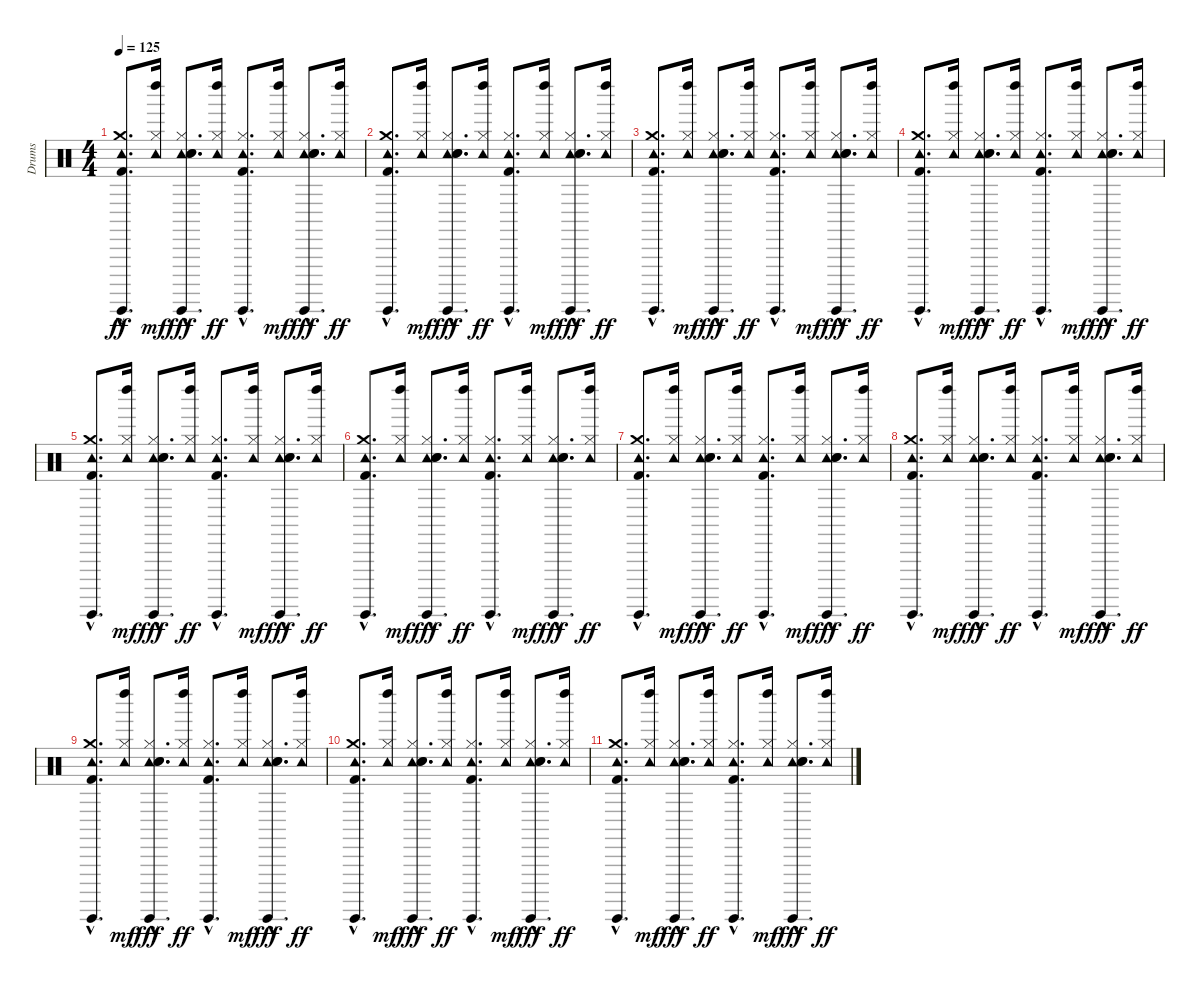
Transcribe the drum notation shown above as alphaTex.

\track ("Drums" "Drums") {instrument percussion}
\staff {score}
\articulation defaults
\ts (4 4)
\tempo 125
\clef neutral
\ks c
("Guiro (hit)"{hac} "Tambourine (hit)"{hac} "Crash medium (hit)"{hac} "Kick (hit) 2"{hac}).8{d dy ff} ("Left Maraca (hit)" "Tambourine (hit)" "Hi-Hat (closed)").16{dy mf} ("Guiro (hit)"{hac} "Tambourine (hit)"{hac} "Hi-Hat (closed)"{hac} "Hand Clap (hit)"{hac} "Snare (hit) 2"{hac}).8{d dy fff} ("Left Maraca (hit)" "Tambourine (hit)" "Hi-Hat (closed)").16{dy ff} ("Guiro (hit)"{hac} "Tambourine (hit)"{hac} "Hi-Hat (closed)"{hac} "Kick (hit) 2"{hac}).8{d} ("Left Maraca (hit)" "Tambourine (hit)" "Hi-Hat (closed)").16{dy mf} ("Guiro (hit)"{hac} "Tambourine (hit)"{hac} "Hi-Hat (closed)"{hac} "Hand Clap (hit)"{hac} "Snare (hit) 2"{hac}).8{d dy fff} ("Left Maraca (hit)" "Tambourine (hit)" "Hi-Hat (closed)").16{dy ff} |
("Guiro (hit)"{hac} "Tambourine (hit)"{hac} "Crash medium (hit)"{hac} "Kick (hit) 2"{hac}).8{d} ("Left Maraca (hit)" "Tambourine (hit)" "Hi-Hat (closed)").16{dy mf} ("Guiro (hit)"{hac} "Tambourine (hit)"{hac} "Hi-Hat (closed)"{hac} "Hand Clap (hit)"{hac} "Snare (hit) 2"{hac}).8{d dy fff} ("Left Maraca (hit)" "Tambourine (hit)" "Hi-Hat (closed)").16{dy ff} ("Guiro (hit)"{hac} "Tambourine (hit)"{hac} "Hi-Hat (closed)"{hac} "Kick (hit) 2"{hac}).8{d} ("Left Maraca (hit)" "Tambourine (hit)" "Hi-Hat (closed)").16{dy mf} ("Guiro (hit)"{hac} "Tambourine (hit)"{hac} "Hi-Hat (closed)"{hac} "Hand Clap (hit)"{hac} "Snare (hit) 2"{hac}).8{d dy fff} ("Left Maraca (hit)" "Tambourine (hit)" "Hi-Hat (closed)").16{dy ff} |
("Guiro (hit)"{hac} "Tambourine (hit)"{hac} "Crash medium (hit)"{hac} "Kick (hit) 2"{hac}).8{d} ("Left Maraca (hit)" "Tambourine (hit)" "Hi-Hat (closed)").16{dy mf} ("Guiro (hit)"{hac} "Tambourine (hit)"{hac} "Hi-Hat (closed)"{hac} "Hand Clap (hit)"{hac} "Snare (hit) 2"{hac}).8{d dy fff} ("Left Maraca (hit)" "Tambourine (hit)" "Hi-Hat (closed)").16{dy ff} ("Guiro (hit)"{hac} "Tambourine (hit)"{hac} "Hi-Hat (closed)"{hac} "Kick (hit) 2"{hac}).8{d} ("Left Maraca (hit)" "Tambourine (hit)" "Hi-Hat (closed)").16{dy mf} ("Guiro (hit)"{hac} "Tambourine (hit)"{hac} "Hi-Hat (closed)"{hac} "Hand Clap (hit)"{hac} "Snare (hit) 2"{hac}).8{d dy fff} ("Left Maraca (hit)" "Tambourine (hit)" "Hi-Hat (closed)").16{dy ff} |
("Guiro (hit)"{hac} "Tambourine (hit)"{hac} "Crash medium (hit)"{hac} "Kick (hit) 2"{hac}).8{d} ("Left Maraca (hit)" "Tambourine (hit)" "Hi-Hat (closed)").16{dy mf} ("Guiro (hit)"{hac} "Tambourine (hit)"{hac} "Hi-Hat (closed)"{hac} "Hand Clap (hit)"{hac} "Snare (hit) 2"{hac}).8{d dy fff} ("Left Maraca (hit)" "Tambourine (hit)" "Hi-Hat (closed)").16{dy ff} ("Guiro (hit)"{hac} "Tambourine (hit)"{hac} "Hi-Hat (closed)"{hac} "Kick (hit) 2"{hac}).8{d} ("Left Maraca (hit)" "Tambourine (hit)" "Hi-Hat (closed)").16{dy mf} ("Guiro (hit)"{hac} "Tambourine (hit)"{hac} "Hi-Hat (closed)"{hac} "Hand Clap (hit)"{hac} "Snare (hit) 2"{hac}).8{d dy fff} ("Left Maraca (hit)" "Tambourine (hit)" "Hi-Hat (closed)").16{dy ff} |
("Guiro (hit)"{hac} "Tambourine (hit)"{hac} "Crash medium (hit)"{hac} "Kick (hit) 2"{hac}).8{d} ("Left Maraca (hit)" "Tambourine (hit)" "Hi-Hat (closed)").16{dy mf} ("Guiro (hit)"{hac} "Tambourine (hit)"{hac} "Hi-Hat (closed)"{hac} "Hand Clap (hit)"{hac} "Snare (hit) 2"{hac}).8{d dy fff} ("Left Maraca (hit)" "Tambourine (hit)" "Hi-Hat (closed)").16{dy ff} ("Guiro (hit)"{hac} "Tambourine (hit)"{hac} "Hi-Hat (closed)"{hac} "Kick (hit) 2"{hac}).8{d} ("Left Maraca (hit)" "Tambourine (hit)" "Hi-Hat (closed)").16{dy mf} ("Guiro (hit)"{hac} "Tambourine (hit)"{hac} "Hi-Hat (closed)"{hac} "Hand Clap (hit)"{hac} "Snare (hit) 2"{hac}).8{d dy fff} ("Left Maraca (hit)" "Tambourine (hit)" "Hi-Hat (closed)").16{dy ff} |
("Guiro (hit)"{hac} "Tambourine (hit)"{hac} "Crash medium (hit)"{hac} "Kick (hit) 2"{hac}).8{d} ("Left Maraca (hit)" "Tambourine (hit)" "Hi-Hat (closed)").16{dy mf} ("Guiro (hit)"{hac} "Tambourine (hit)"{hac} "Hi-Hat (closed)"{hac} "Hand Clap (hit)"{hac} "Snare (hit) 2"{hac}).8{d dy fff} ("Left Maraca (hit)" "Tambourine (hit)" "Hi-Hat (closed)").16{dy ff} ("Guiro (hit)"{hac} "Tambourine (hit)"{hac} "Hi-Hat (closed)"{hac} "Kick (hit) 2"{hac}).8{d} ("Left Maraca (hit)" "Tambourine (hit)" "Hi-Hat (closed)").16{dy mf} ("Guiro (hit)"{hac} "Tambourine (hit)"{hac} "Hi-Hat (closed)"{hac} "Hand Clap (hit)"{hac} "Snare (hit) 2"{hac}).8{d dy fff} ("Left Maraca (hit)" "Tambourine (hit)" "Hi-Hat (closed)").16{dy ff} |
("Guiro (hit)"{hac} "Tambourine (hit)"{hac} "Crash medium (hit)"{hac} "Kick (hit) 2"{hac}).8{d} ("Left Maraca (hit)" "Tambourine (hit)" "Hi-Hat (closed)").16{dy mf} ("Guiro (hit)"{hac} "Tambourine (hit)"{hac} "Hi-Hat (closed)"{hac} "Hand Clap (hit)"{hac} "Snare (hit) 2"{hac}).8{d dy fff} ("Left Maraca (hit)" "Tambourine (hit)" "Hi-Hat (closed)").16{dy ff} ("Guiro (hit)"{hac} "Tambourine (hit)"{hac} "Hi-Hat (closed)"{hac} "Kick (hit) 2"{hac}).8{d} ("Left Maraca (hit)" "Tambourine (hit)" "Hi-Hat (closed)").16{dy mf} ("Guiro (hit)"{hac} "Tambourine (hit)"{hac} "Hi-Hat (closed)"{hac} "Hand Clap (hit)"{hac} "Snare (hit) 2"{hac}).8{d dy fff} ("Left Maraca (hit)" "Tambourine (hit)" "Hi-Hat (closed)").16{dy ff} |
("Guiro (hit)"{hac} "Tambourine (hit)"{hac} "Crash medium (hit)"{hac} "Kick (hit) 2"{hac}).8{d} ("Left Maraca (hit)" "Tambourine (hit)" "Hi-Hat (closed)").16{dy mf} ("Guiro (hit)"{hac} "Tambourine (hit)"{hac} "Hi-Hat (closed)"{hac} "Hand Clap (hit)"{hac} "Snare (hit) 2"{hac}).8{d dy fff} ("Left Maraca (hit)" "Tambourine (hit)" "Hi-Hat (closed)").16{dy ff} ("Guiro (hit)"{hac} "Tambourine (hit)"{hac} "Hi-Hat (closed)"{hac} "Kick (hit) 2"{hac}).8{d} ("Left Maraca (hit)" "Tambourine (hit)" "Hi-Hat (closed)").16{dy mf} ("Guiro (hit)"{hac} "Tambourine (hit)"{hac} "Hi-Hat (closed)"{hac} "Hand Clap (hit)"{hac} "Snare (hit) 2"{hac}).8{d dy fff} ("Left Maraca (hit)" "Tambourine (hit)" "Hi-Hat (closed)").16{dy ff} |
("Guiro (hit)"{hac} "Tambourine (hit)"{hac} "Crash medium (hit)"{hac} "Kick (hit) 2"{hac}).8{d} ("Left Maraca (hit)" "Tambourine (hit)" "Hi-Hat (closed)").16{dy mf} ("Guiro (hit)"{hac} "Tambourine (hit)"{hac} "Hi-Hat (closed)"{hac} "Hand Clap (hit)"{hac} "Snare (hit) 2"{hac}).8{d dy fff} ("Left Maraca (hit)" "Tambourine (hit)" "Hi-Hat (closed)").16{dy ff} ("Guiro (hit)"{hac} "Tambourine (hit)"{hac} "Hi-Hat (closed)"{hac} "Kick (hit) 2"{hac}).8{d} ("Left Maraca (hit)" "Tambourine (hit)" "Hi-Hat (closed)").16{dy mf} ("Guiro (hit)"{hac} "Tambourine (hit)"{hac} "Hi-Hat (closed)"{hac} "Hand Clap (hit)"{hac} "Snare (hit) 2"{hac}).8{d dy fff} ("Left Maraca (hit)" "Tambourine (hit)" "Hi-Hat (closed)").16{dy ff} |
("Guiro (hit)"{hac} "Tambourine (hit)"{hac} "Crash medium (hit)"{hac} "Kick (hit) 2"{hac}).8{d} ("Left Maraca (hit)" "Tambourine (hit)" "Hi-Hat (closed)").16{dy mf} ("Guiro (hit)"{hac} "Tambourine (hit)"{hac} "Hi-Hat (closed)"{hac} "Hand Clap (hit)"{hac} "Snare (hit) 2"{hac}).8{d dy fff} ("Left Maraca (hit)" "Tambourine (hit)" "Hi-Hat (closed)").16{dy ff} ("Guiro (hit)"{hac} "Tambourine (hit)"{hac} "Hi-Hat (closed)"{hac} "Kick (hit) 2"{hac}).8{d} ("Left Maraca (hit)" "Tambourine (hit)" "Hi-Hat (closed)").16{dy mf} ("Guiro (hit)"{hac} "Tambourine (hit)"{hac} "Hi-Hat (closed)"{hac} "Hand Clap (hit)"{hac} "Snare (hit) 2"{hac}).8{d dy fff} ("Left Maraca (hit)" "Tambourine (hit)" "Hi-Hat (closed)").16{dy ff} |
("Guiro (hit)"{hac} "Tambourine (hit)"{hac} "Crash medium (hit)"{hac} "Kick (hit) 2"{hac}).8{d} ("Left Maraca (hit)" "Tambourine (hit)" "Hi-Hat (closed)").16{dy mf} ("Guiro (hit)"{hac} "Tambourine (hit)"{hac} "Hi-Hat (closed)"{hac} "Hand Clap (hit)"{hac} "Snare (hit) 2"{hac}).8{d dy fff} ("Left Maraca (hit)" "Tambourine (hit)" "Hi-Hat (closed)").16{dy ff} ("Guiro (hit)"{hac} "Tambourine (hit)"{hac} "Hi-Hat (closed)"{hac} "Kick (hit) 2"{hac}).8{d} ("Left Maraca (hit)" "Tambourine (hit)" "Hi-Hat (closed)").16{dy mf} ("Guiro (hit)"{hac} "Tambourine (hit)"{hac} "Hi-Hat (closed)"{hac} "Hand Clap (hit)"{hac} "Snare (hit) 2"{hac}).8{d dy fff} ("Left Maraca (hit)" "Tambourine (hit)" "Hi-Hat (closed)").16{dy ff}
